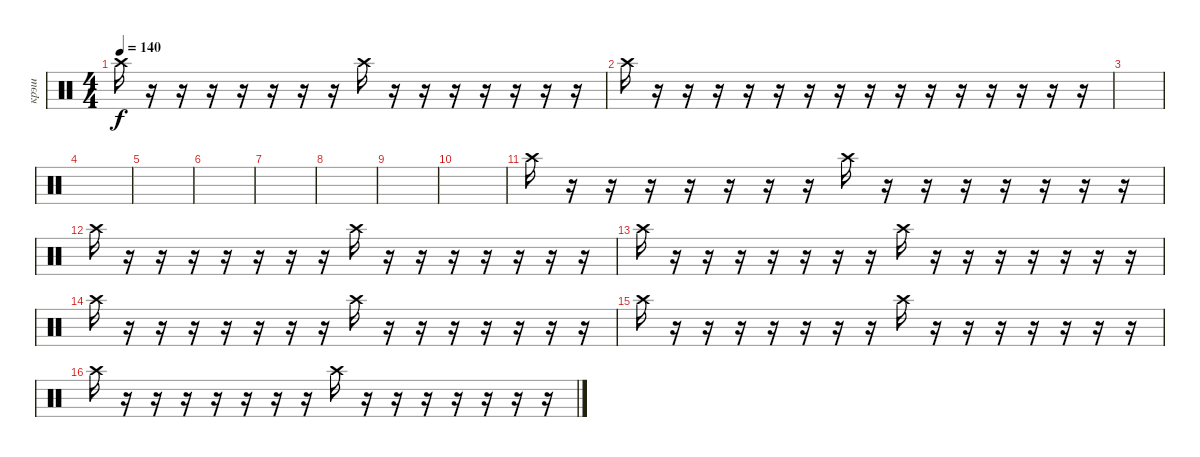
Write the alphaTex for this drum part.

\track ("крэш" "крэш") {mute instrument percussion}
\staff {score}
\articulation defaults
\ts (4 4)
\tempo 140
\clef neutral
\ks c "Crash high (hit)".16{dy f}
r.16 r.16 r.16 r.16 r.16 r.16 r.16 "Crash high (hit)".16 r.16 r.16 r.16 r.16 r.16 r.16 r.16 |
"Crash high (hit)".16 r.16 r.16 r.16 r.16 r.16 r.16 r.16 r.16 r.16 r.16 r.16 r.16 r.16 r.16 r.16 |
|
|
|
|
|
|
|
|
"Crash high (hit)".16 r.16 r.16 r.16 r.16 r.16 r.16 r.16 "Crash high (hit)".16 r.16 r.16 r.16 r.16 r.16 r.16 r.16 |
"Crash high (hit)".16 r.16 r.16 r.16 r.16 r.16 r.16 r.16 "Crash high (hit)".16 r.16 r.16 r.16 r.16 r.16 r.16 r.16 |
"Crash high (hit)".16 r.16 r.16 r.16 r.16 r.16 r.16 r.16 "Crash high (hit)".16 r.16 r.16 r.16 r.16 r.16 r.16 r.16 |
"Crash high (hit)".16 r.16 r.16 r.16 r.16 r.16 r.16 r.16 "Crash high (hit)".16 r.16 r.16 r.16 r.16 r.16 r.16 r.16 |
"Crash high (hit)".16 r.16 r.16 r.16 r.16 r.16 r.16 r.16 "Crash high (hit)".16 r.16 r.16 r.16 r.16 r.16 r.16 r.16 |
"Crash high (hit)".16 r.16 r.16 r.16 r.16 r.16 r.16 r.16 "Crash high (hit)".16 r.16 r.16 r.16 r.16 r.16 r.16 r.16
